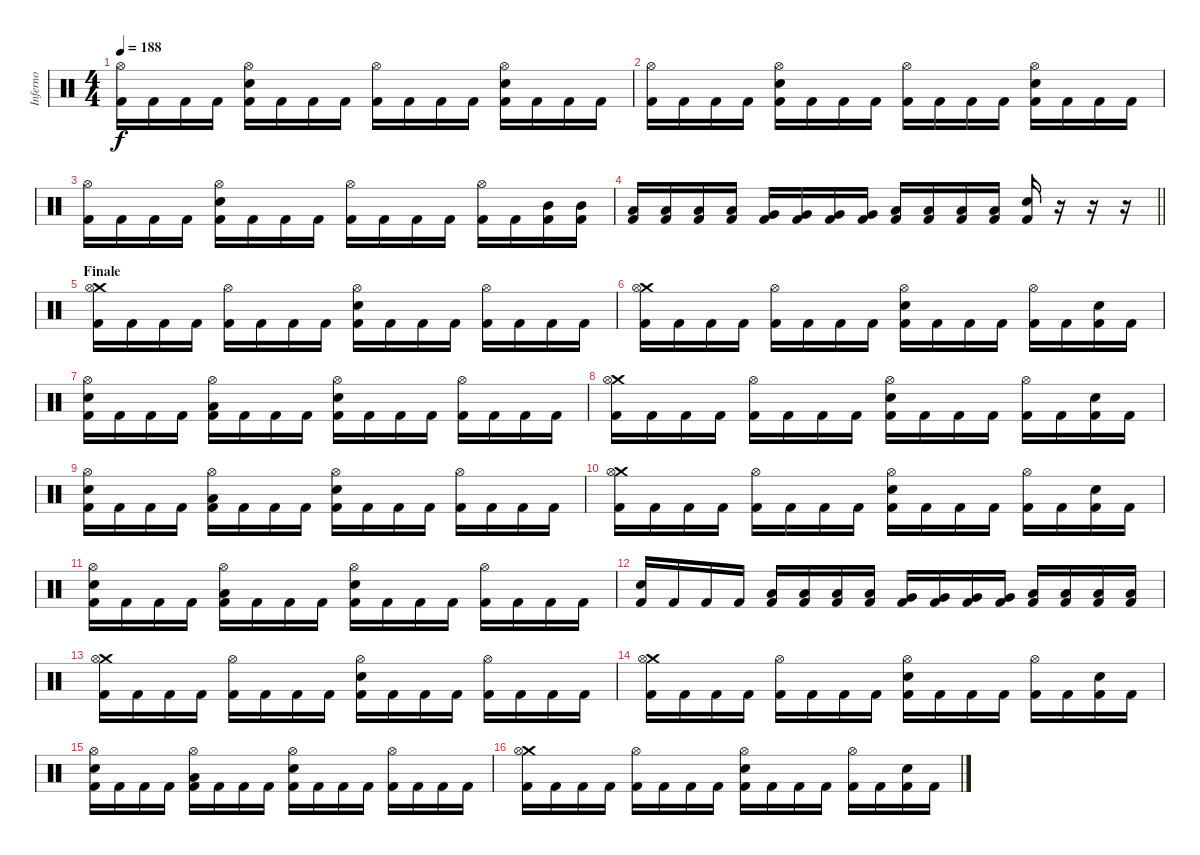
\track ("Inferno" "Inferno") {instrument percussion}
\staff {score}
\articulation defaults
\ts (4 4)
\tempo 188
\clef neutral
\ks c
("Hi-Hat (open)" "Kick (hit) 2").16{dy f} "Kick (hit) 2".16 "Kick (hit) 2".16 "Kick (hit) 2".16 ("Hi-Hat (open)" "Snare (hit) 2" "Kick (hit) 2").16 "Kick (hit) 2".16 "Kick (hit) 2".16 "Kick (hit) 2".16 ("Hi-Hat (open)" "Kick (hit) 2").16 "Kick (hit) 2".16 "Kick (hit) 2".16 "Kick (hit) 2".16 ("Hi-Hat (open)" "Snare (hit) 2" "Kick (hit) 2").16 "Kick (hit) 2".16 "Kick (hit) 2".16 "Kick (hit) 2".16 |
("Hi-Hat (open)" "Kick (hit) 2").16 "Kick (hit) 2".16 "Kick (hit) 2".16 "Kick (hit) 2".16 ("Hi-Hat (open)" "Snare (hit) 2" "Kick (hit) 2").16 "Kick (hit) 2".16 "Kick (hit) 2".16 "Kick (hit) 2".16 ("Hi-Hat (open)" "Kick (hit) 2").16 "Kick (hit) 2".16 "Kick (hit) 2".16 "Kick (hit) 2".16 ("Hi-Hat (open)" "Snare (hit) 2" "Kick (hit) 2").16 "Kick (hit) 2".16 "Kick (hit) 2".16 "Kick (hit) 2".16 |
("Hi-Hat (open)" "Kick (hit) 2").16 "Kick (hit) 2".16 "Kick (hit) 2".16 "Kick (hit) 2".16 ("Hi-Hat (open)" "Snare (hit) 2" "Kick (hit) 2").16 "Kick (hit) 2".16 "Kick (hit) 2".16 "Kick (hit) 2".16 ("Hi-Hat (open)" "Kick (hit) 2").16 "Kick (hit) 2".16 "Kick (hit) 2".16 "Kick (hit) 2".16 ("Hi-Hat (open)" "Kick (hit) 2").16 "Kick (hit) 2".16 ("Mid Tom (hit)" "Kick (hit) 2").16 ("Mid Tom (hit)" "Kick (hit) 2").16 |
\barLineRight lightlight
("Low Tom (hit)" "Kick (hit) 2").16 ("Low Tom (hit)" "Kick (hit) 2").16 ("Low Tom (hit)" "Kick (hit) 2").16 ("Low Tom (hit)" "Kick (hit) 2").16 ("Very Low Tom (hit)" "Kick (hit) 2").16 ("Very Low Tom (hit)" "Kick (hit) 2").16 ("Very Low Tom (hit)" "Kick (hit) 2").16 ("Very Low Tom (hit)" "Kick (hit) 2").16 ("Low Floor Tom (hit)" "Kick (hit) 2").16 ("Low Floor Tom (hit)" "Kick (hit) 2").16 ("Low Floor Tom (hit)" "Kick (hit) 2").16 ("Low Floor Tom (hit)" "Kick (hit) 2").16 ("Snare (hit) 2" "Kick (hit) 2").16 r.16 r.16 r.16 |
\section ("" "Finale")
("Crash medium (hit)" "Hi-Hat (open)" "Kick (hit) 2").16 "Kick (hit) 2".16 "Kick (hit) 2".16 "Kick (hit) 2".16 ("Hi-Hat (open)" "Kick (hit) 2").16 "Kick (hit) 2".16 "Kick (hit) 2".16 "Kick (hit) 2".16 ("Hi-Hat (open)" "Snare (hit) 2" "Kick (hit) 2").16 "Kick (hit) 2".16 "Kick (hit) 2".16 "Kick (hit) 2".16 ("Hi-Hat (open)" "Kick (hit) 2").16 "Kick (hit) 2".16 "Kick (hit) 2".16 "Kick (hit) 2".16 |
("Crash medium (hit)" "Hi-Hat (open)" "Kick (hit) 2").16 "Kick (hit) 2".16 "Kick (hit) 2".16 "Kick (hit) 2".16 ("Hi-Hat (open)" "Kick (hit) 2").16 "Kick (hit) 2".16 "Kick (hit) 2".16 "Kick (hit) 2".16 ("Hi-Hat (open)" "Snare (hit) 2" "Kick (hit) 2").16 "Kick (hit) 2".16 "Kick (hit) 2".16 "Kick (hit) 2".16 ("Hi-Hat (open)" "Kick (hit) 2").16 "Kick (hit) 2".16 ("Snare (hit) 2" "Kick (hit) 2").16 "Kick (hit) 2".16 |
("Hi-Hat (open)" "Snare (hit) 2" "Kick (hit) 2").16 "Kick (hit) 2".16 "Kick (hit) 2".16 "Kick (hit) 2".16 ("Hi-Hat (open)" "Low Floor Tom (hit)" "Kick (hit) 2").16 "Kick (hit) 2".16 "Kick (hit) 2".16 "Kick (hit) 2".16 ("Hi-Hat (open)" "Snare (hit) 2" "Kick (hit) 2").16 "Kick (hit) 2".16 "Kick (hit) 2".16 "Kick (hit) 2".16 ("Hi-Hat (open)" "Kick (hit) 2").16 "Kick (hit) 2".16 "Kick (hit) 2".16 "Kick (hit) 2".16 |
("Crash medium (hit)" "Hi-Hat (open)" "Kick (hit) 2").16 "Kick (hit) 2".16 "Kick (hit) 2".16 "Kick (hit) 2".16 ("Hi-Hat (open)" "Kick (hit) 2").16 "Kick (hit) 2".16 "Kick (hit) 2".16 "Kick (hit) 2".16 ("Hi-Hat (open)" "Snare (hit) 2" "Kick (hit) 2").16 "Kick (hit) 2".16 "Kick (hit) 2".16 "Kick (hit) 2".16 ("Hi-Hat (open)" "Kick (hit) 2").16 "Kick (hit) 2".16 ("Snare (hit) 2" "Kick (hit) 2").16 "Kick (hit) 2".16 |
("Hi-Hat (open)" "Snare (hit) 2" "Kick (hit) 2").16 "Kick (hit) 2".16 "Kick (hit) 2".16 "Kick (hit) 2".16 ("Hi-Hat (open)" "Low Floor Tom (hit)" "Kick (hit) 2").16 "Kick (hit) 2".16 "Kick (hit) 2".16 "Kick (hit) 2".16 ("Hi-Hat (open)" "Snare (hit) 2" "Kick (hit) 2").16 "Kick (hit) 2".16 "Kick (hit) 2".16 "Kick (hit) 2".16 ("Hi-Hat (open)" "Kick (hit) 2").16 "Kick (hit) 2".16 "Kick (hit) 2".16 "Kick (hit) 2".16 |
("Crash medium (hit)" "Hi-Hat (open)" "Kick (hit) 2").16 "Kick (hit) 2".16 "Kick (hit) 2".16 "Kick (hit) 2".16 ("Hi-Hat (open)" "Kick (hit) 2").16 "Kick (hit) 2".16 "Kick (hit) 2".16 "Kick (hit) 2".16 ("Hi-Hat (open)" "Snare (hit) 2" "Kick (hit) 2").16 "Kick (hit) 2".16 "Kick (hit) 2".16 "Kick (hit) 2".16 ("Hi-Hat (open)" "Kick (hit) 2").16 "Kick (hit) 2".16 ("Snare (hit) 2" "Kick (hit) 2").16 "Kick (hit) 2".16 |
("Hi-Hat (open)" "Snare (hit) 2" "Kick (hit) 2").16 "Kick (hit) 2".16 "Kick (hit) 2".16 "Kick (hit) 2".16 ("Hi-Hat (open)" "Low Floor Tom (hit)" "Kick (hit) 2").16 "Kick (hit) 2".16 "Kick (hit) 2".16 "Kick (hit) 2".16 ("Hi-Hat (open)" "Snare (hit) 2" "Kick (hit) 2").16 "Kick (hit) 2".16 "Kick (hit) 2".16 "Kick (hit) 2".16 ("Hi-Hat (open)" "Kick (hit) 2").16 "Kick (hit) 2".16 "Kick (hit) 2".16 "Kick (hit) 2".16 |
("Snare (hit) 2" "Kick (hit) 2").16 "Kick (hit) 2".16 "Kick (hit) 2".16 "Kick (hit) 2".16 ("Low Tom (hit)" "Kick (hit) 2").16 ("Low Tom (hit)" "Kick (hit) 2").16 ("Low Tom (hit)" "Kick (hit) 2").16 ("Low Tom (hit)" "Kick (hit) 2").16 ("Very Low Tom (hit)" "Kick (hit) 2").16 ("Very Low Tom (hit)" "Kick (hit) 2").16 ("Very Low Tom (hit)" "Kick (hit) 2").16 ("Very Low Tom (hit)" "Kick (hit) 2").16 ("Low Floor Tom (hit)" "Kick (hit) 2").16 ("Low Floor Tom (hit)" "Kick (hit) 2").16 ("Low Floor Tom (hit)" "Kick (hit) 2").16 ("Low Floor Tom (hit)" "Kick (hit) 2").16 |
("Crash medium (hit)" "Hi-Hat (open)" "Kick (hit) 2").16 "Kick (hit) 2".16 "Kick (hit) 2".16 "Kick (hit) 2".16 ("Hi-Hat (open)" "Kick (hit) 2").16 "Kick (hit) 2".16 "Kick (hit) 2".16 "Kick (hit) 2".16 ("Hi-Hat (open)" "Snare (hit) 2" "Kick (hit) 2").16 "Kick (hit) 2".16 "Kick (hit) 2".16 "Kick (hit) 2".16 ("Hi-Hat (open)" "Kick (hit) 2").16 "Kick (hit) 2".16 "Kick (hit) 2".16 "Kick (hit) 2".16 |
("Crash medium (hit)" "Hi-Hat (open)" "Kick (hit) 2").16 "Kick (hit) 2".16 "Kick (hit) 2".16 "Kick (hit) 2".16 ("Hi-Hat (open)" "Kick (hit) 2").16 "Kick (hit) 2".16 "Kick (hit) 2".16 "Kick (hit) 2".16 ("Hi-Hat (open)" "Snare (hit) 2" "Kick (hit) 2").16 "Kick (hit) 2".16 "Kick (hit) 2".16 "Kick (hit) 2".16 ("Hi-Hat (open)" "Kick (hit) 2").16 "Kick (hit) 2".16 ("Snare (hit) 2" "Kick (hit) 2").16 "Kick (hit) 2".16 |
("Hi-Hat (open)" "Snare (hit) 2" "Kick (hit) 2").16 "Kick (hit) 2".16 "Kick (hit) 2".16 "Kick (hit) 2".16 ("Hi-Hat (open)" "Low Floor Tom (hit)" "Kick (hit) 2").16 "Kick (hit) 2".16 "Kick (hit) 2".16 "Kick (hit) 2".16 ("Hi-Hat (open)" "Snare (hit) 2" "Kick (hit) 2").16 "Kick (hit) 2".16 "Kick (hit) 2".16 "Kick (hit) 2".16 ("Hi-Hat (open)" "Kick (hit) 2").16 "Kick (hit) 2".16 "Kick (hit) 2".16 "Kick (hit) 2".16 |
("Crash medium (hit)" "Hi-Hat (open)" "Kick (hit) 2").16 "Kick (hit) 2".16 "Kick (hit) 2".16 "Kick (hit) 2".16 ("Hi-Hat (open)" "Kick (hit) 2").16 "Kick (hit) 2".16 "Kick (hit) 2".16 "Kick (hit) 2".16 ("Hi-Hat (open)" "Snare (hit) 2" "Kick (hit) 2").16 "Kick (hit) 2".16 "Kick (hit) 2".16 "Kick (hit) 2".16 ("Hi-Hat (open)" "Kick (hit) 2").16 "Kick (hit) 2".16 ("Snare (hit) 2" "Kick (hit) 2").16 "Kick (hit) 2".16
